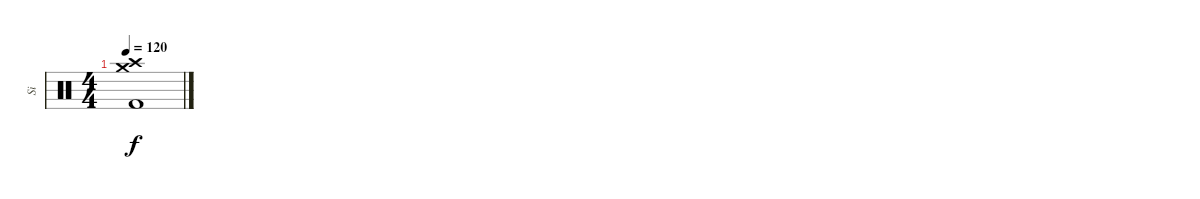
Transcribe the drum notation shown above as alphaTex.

\track ("Si" "Si") {instrument percussion}
\staff {score}
\articulation defaults
\ts (4 4)
\tempo 120
\clef neutral
\ks c
("Crash high (hit)" "Crash medium (hit)" "Kick (hit) 2").1{dy f}
